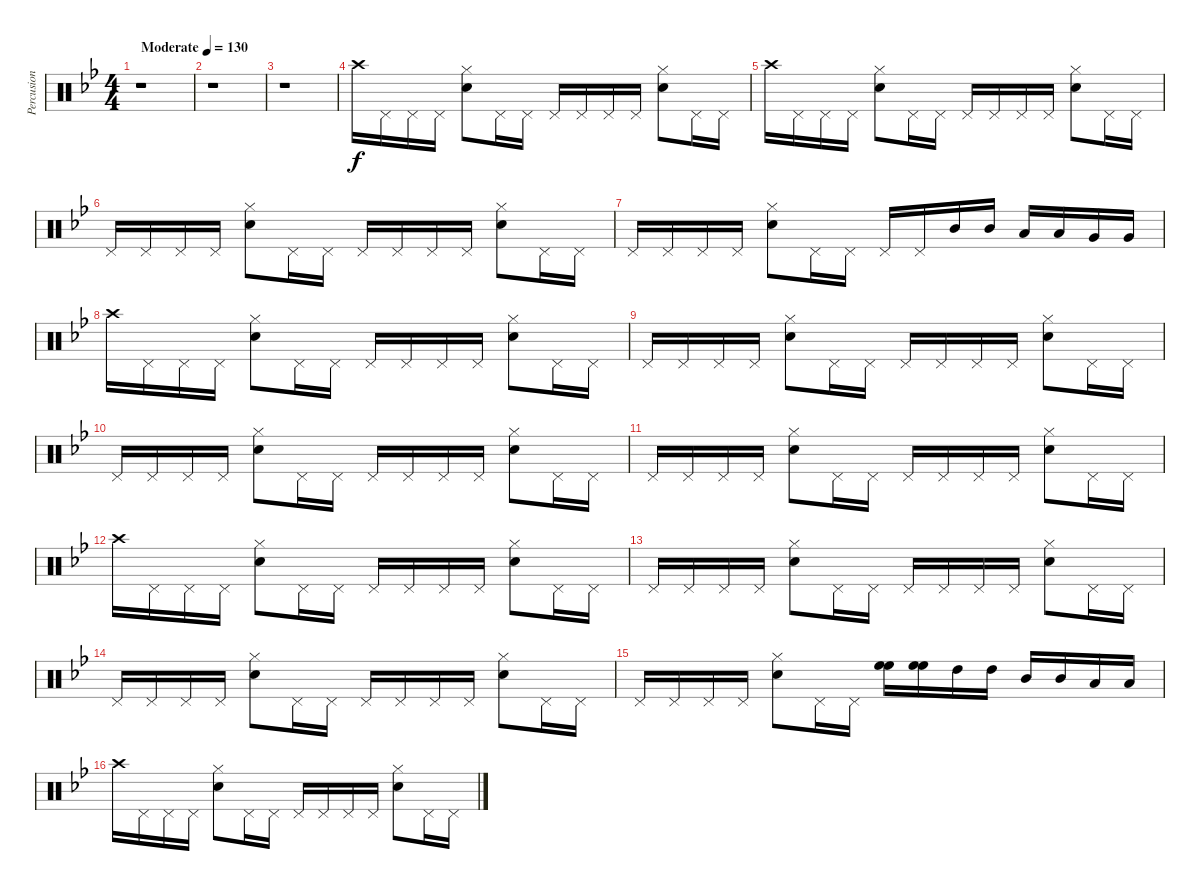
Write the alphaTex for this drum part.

\track ("Percusion I" "Percusion ") {instrument percussion}
\staff {score}
\articulation defaults
\ts (4 4)
\tempo (130 "Moderate")
\clef neutral
\ks gminor
r.1{dy f} |
r.1 |
r.1 |
"Crash high (hit)".16 "Pedal Hi-Hat (hit)".16 "Pedal Hi-Hat (hit)".16 "Pedal Hi-Hat (hit)".16 ("Snare (hit) 2" "Hi-Hat (closed)").8 "Pedal Hi-Hat (hit)".16 "Pedal Hi-Hat (hit)".16 "Pedal Hi-Hat (hit)".16 "Pedal Hi-Hat (hit)".16 "Pedal Hi-Hat (hit)".16 "Pedal Hi-Hat (hit)".16 ("Snare (hit) 2" "Hi-Hat (closed)").8 "Pedal Hi-Hat (hit)".16 "Pedal Hi-Hat (hit)".16 |
"Crash high (hit)".16 "Pedal Hi-Hat (hit)".16 "Pedal Hi-Hat (hit)".16 "Pedal Hi-Hat (hit)".16 ("Snare (hit) 2" "Hi-Hat (closed)").8 "Pedal Hi-Hat (hit)".16 "Pedal Hi-Hat (hit)".16 "Pedal Hi-Hat (hit)".16 "Pedal Hi-Hat (hit)".16 "Pedal Hi-Hat (hit)".16 "Pedal Hi-Hat (hit)".16 ("Snare (hit) 2" "Hi-Hat (closed)").8 "Pedal Hi-Hat (hit)".16 "Pedal Hi-Hat (hit)".16 |
"Pedal Hi-Hat (hit)".16 "Pedal Hi-Hat (hit)".16 "Pedal Hi-Hat (hit)".16 "Pedal Hi-Hat (hit)".16 ("Snare (hit) 2" "Hi-Hat (closed)").8 "Pedal Hi-Hat (hit)".16 "Pedal Hi-Hat (hit)".16 "Pedal Hi-Hat (hit)".16 "Pedal Hi-Hat (hit)".16 "Pedal Hi-Hat (hit)".16 "Pedal Hi-Hat (hit)".16 ("Snare (hit) 2" "Hi-Hat (closed)").8 "Pedal Hi-Hat (hit)".16 "Pedal Hi-Hat (hit)".16 |
"Pedal Hi-Hat (hit)".16 "Pedal Hi-Hat (hit)".16 "Pedal Hi-Hat (hit)".16 "Pedal Hi-Hat (hit)".16 ("Snare (hit) 2" "Hi-Hat (closed)").8 "Pedal Hi-Hat (hit)".16 "Pedal Hi-Hat (hit)".16 "Pedal Hi-Hat (hit)".16 "Pedal Hi-Hat (hit)".16 "Mid Tom (hit)".16 "Mid Tom (hit)".16 "Low Tom (hit)".16 "Low Tom (hit)".16 "Very Low Tom (hit)".16 "Very Low Tom (hit)".16 |
"Crash high (hit)".16 "Pedal Hi-Hat (hit)".16 "Pedal Hi-Hat (hit)".16 "Pedal Hi-Hat (hit)".16 ("Snare (hit) 2" "Hi-Hat (closed)").8 "Pedal Hi-Hat (hit)".16 "Pedal Hi-Hat (hit)".16 "Pedal Hi-Hat (hit)".16 "Pedal Hi-Hat (hit)".16 "Pedal Hi-Hat (hit)".16 "Pedal Hi-Hat (hit)".16 ("Hi-Hat (closed)" "Snare (hit) 2").8 "Pedal Hi-Hat (hit)".16 "Pedal Hi-Hat (hit)".16 |
"Pedal Hi-Hat (hit)".16 "Pedal Hi-Hat (hit)".16 "Pedal Hi-Hat (hit)".16 "Pedal Hi-Hat (hit)".16 ("Hi-Hat (closed)" "Snare (hit) 2").8 "Pedal Hi-Hat (hit)".16 "Pedal Hi-Hat (hit)".16 "Pedal Hi-Hat (hit)".16 "Pedal Hi-Hat (hit)".16 "Pedal Hi-Hat (hit)".16 "Pedal Hi-Hat (hit)".16 ("Snare (hit) 2" "Hi-Hat (closed)").8 "Pedal Hi-Hat (hit)".16 "Pedal Hi-Hat (hit)".16 |
"Pedal Hi-Hat (hit)".16 "Pedal Hi-Hat (hit)".16 "Pedal Hi-Hat (hit)".16 "Pedal Hi-Hat (hit)".16 ("Hi-Hat (closed)" "Snare (hit) 2").8 "Pedal Hi-Hat (hit)".16 "Pedal Hi-Hat (hit)".16 "Pedal Hi-Hat (hit)".16 "Pedal Hi-Hat (hit)".16 "Pedal Hi-Hat (hit)".16 "Pedal Hi-Hat (hit)".16 ("Hi-Hat (closed)" "Snare (hit) 2").8 "Pedal Hi-Hat (hit)".16 "Pedal Hi-Hat (hit)".16 |
"Pedal Hi-Hat (hit)".16 "Pedal Hi-Hat (hit)".16 "Pedal Hi-Hat (hit)".16 "Pedal Hi-Hat (hit)".16 ("Snare (hit) 2" "Hi-Hat (closed)").8 "Pedal Hi-Hat (hit)".16 "Pedal Hi-Hat (hit)".16 "Pedal Hi-Hat (hit)".16 "Pedal Hi-Hat (hit)".16 "Pedal Hi-Hat (hit)".16 "Pedal Hi-Hat (hit)".16 ("Snare (hit) 2" "Hi-Hat (closed)").8 "Pedal Hi-Hat (hit)".16 "Pedal Hi-Hat (hit)".16 |
"Crash high (hit)".16 "Pedal Hi-Hat (hit)".16 "Pedal Hi-Hat (hit)".16 "Pedal Hi-Hat (hit)".16 ("Snare (hit) 2" "Hi-Hat (closed)").8 "Pedal Hi-Hat (hit)".16 "Pedal Hi-Hat (hit)".16 "Pedal Hi-Hat (hit)".16 "Pedal Hi-Hat (hit)".16 "Pedal Hi-Hat (hit)".16 "Pedal Hi-Hat (hit)".16 ("Hi-Hat (closed)" "Snare (hit) 2").8 "Pedal Hi-Hat (hit)".16 "Pedal Hi-Hat (hit)".16 |
"Pedal Hi-Hat (hit)".16 "Pedal Hi-Hat (hit)".16 "Pedal Hi-Hat (hit)".16 "Pedal Hi-Hat (hit)".16 ("Hi-Hat (closed)" "Snare (hit) 2").8 "Pedal Hi-Hat (hit)".16 "Pedal Hi-Hat (hit)".16 "Pedal Hi-Hat (hit)".16 "Pedal Hi-Hat (hit)".16 "Pedal Hi-Hat (hit)".16 "Pedal Hi-Hat (hit)".16 ("Snare (hit) 2" "Hi-Hat (closed)").8 "Pedal Hi-Hat (hit)".16 "Pedal Hi-Hat (hit)".16 |
"Pedal Hi-Hat (hit)".16 "Pedal Hi-Hat (hit)".16 "Pedal Hi-Hat (hit)".16 "Pedal Hi-Hat (hit)".16 ("Hi-Hat (closed)" "Snare (hit) 2").8 "Pedal Hi-Hat (hit)".16 "Pedal Hi-Hat (hit)".16 "Pedal Hi-Hat (hit)".16 "Pedal Hi-Hat (hit)".16 "Pedal Hi-Hat (hit)".16 "Pedal Hi-Hat (hit)".16 ("Hi-Hat (closed)" "Snare (hit) 2").8 "Pedal Hi-Hat (hit)".16 "Pedal Hi-Hat (hit)".16 |
"Pedal Hi-Hat (hit)".16 "Pedal Hi-Hat (hit)".16 "Pedal Hi-Hat (hit)".16 "Pedal Hi-Hat (hit)".16 ("Snare (hit) 2" "Hi-Hat (closed)").8 "Pedal Hi-Hat (hit)".16 "Pedal Hi-Hat (hit)".16 ("High Floor Tom (hit)" "High Floor Tom (hit)").16 ("High Floor Tom (hit)" "High Floor Tom (hit)").16 "High Tom (hit)".16 "High Tom (hit)".16 "Mid Tom (hit)".16 "Mid Tom (hit)".16 "Low Tom (hit)".16 "Low Tom (hit)".16 |
"Crash high (hit)".16 "Pedal Hi-Hat (hit)".16 "Pedal Hi-Hat (hit)".16 "Pedal Hi-Hat (hit)".16 ("Snare (hit) 2" "Hi-Hat (closed)").8 "Pedal Hi-Hat (hit)".16 "Pedal Hi-Hat (hit)".16 "Pedal Hi-Hat (hit)".16 "Pedal Hi-Hat (hit)".16 "Pedal Hi-Hat (hit)".16 "Pedal Hi-Hat (hit)".16 ("Hi-Hat (closed)" "Snare (hit) 2").8 "Pedal Hi-Hat (hit)".16 "Pedal Hi-Hat (hit)".16
